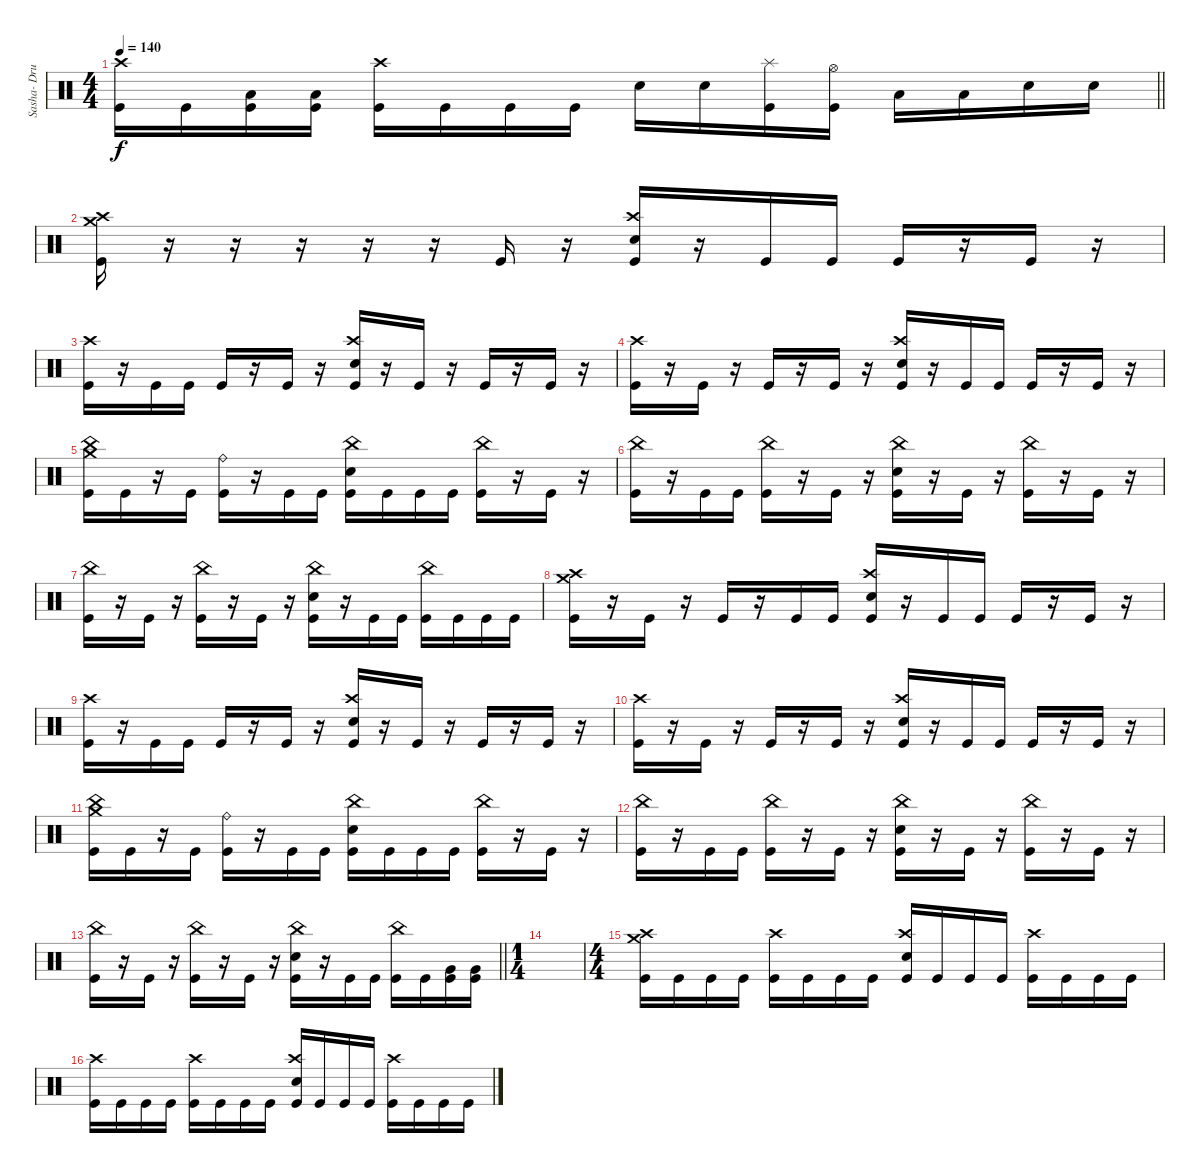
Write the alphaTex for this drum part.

\track ("Sasha- Drums" "Sasha- Dru") {instrument percussion}
\staff {score}
\articulation defaults
\ts (4 4)
\tempo 140
\clef neutral
\barLineRight lightlight
\ks c
("Kick (hit)" "Crash high (hit)").16{dy f} "Kick (hit)".16 ("Kick (hit)" "Low Tom (hit)").16 ("Kick (hit)" "Low Tom (hit)").16 ("Kick (hit)" "Crash high (hit)").16 "Kick (hit)".16 "Kick (hit)".16 "Kick (hit)".16 "Snare (hit) 2".16 "Snare (hit) 2".16 ("Kick (hit)" "Splash (hit)").16 ("Kick (hit)" "Hi-Hat (open)").16 "Low Tom (hit)".16 "Low Tom (hit)".16 "Snare (hit) 2".16 "Snare (hit) 2".16 |
\section ("" "")
("Kick (hit)" "Crash high (hit)" "Crash medium (hit)").16 r.16 r.16 r.16 r.16 r.16 "Kick (hit)".16 r.16 ("Crash high (hit)" "Snare (hit) 2" "Kick (hit)").16 r.16 "Kick (hit)".16 "Kick (hit)".16 "Kick (hit)".16 r.16 "Kick (hit)".16 r.16 |
("Crash high (hit)" "Kick (hit)").16 r.16 "Kick (hit)".16 "Kick (hit)".16 "Kick (hit)".16 r.16 "Kick (hit)".16 r.16 ("Crash high (hit)" "Snare (hit) 2" "Kick (hit)").16 r.16 "Kick (hit)".16 r.16 "Kick (hit)".16 r.16 "Kick (hit)".16 r.16 |
("Crash high (hit)" "Kick (hit)").16 r.16 "Kick (hit)".16 r.16 "Kick (hit)".16 r.16 "Kick (hit)".16 r.16 ("Crash high (hit)" "Snare (hit) 2" "Kick (hit)").16 r.16 "Kick (hit)".16 "Kick (hit)".16 "Kick (hit)".16 r.16 "Kick (hit)".16 r.16 |
("Crash medium (hit)" "China (hit)" "Kick (hit)").16 "Kick (hit)".16 r.16 "Kick (hit)".16 ("Ride (bell)" "Kick (hit)").16 r.16 "Kick (hit)".16 "Kick (hit)".16 ("China (hit)" "Kick (hit)" "Snare (hit) 2").16 "Kick (hit)".16 "Kick (hit)".16 "Kick (hit)".16 ("China (hit)" "Kick (hit)").16 r.16 "Kick (hit)".16 r.16 |
("China (hit)" "Kick (hit)").16 r.16 "Kick (hit)".16 "Kick (hit)".16 ("China (hit)" "Kick (hit)").16 r.16 "Kick (hit)".16 r.16 ("China (hit)" "Kick (hit)" "Snare (hit) 2").16 r.16 "Kick (hit)".16 r.16 ("China (hit)" "Kick (hit)").16 r.16 "Kick (hit)".16 r.16 |
("China (hit)" "Kick (hit)").16 r.16 "Kick (hit)".16 r.16 ("China (hit)" "Kick (hit)").16 r.16 "Kick (hit)".16 r.16 ("China (hit)" "Kick (hit)" "Snare (hit) 2").16 r.16 "Kick (hit)".16 "Kick (hit)".16 ("China (hit)" "Kick (hit)").16 "Kick (hit)".16 "Kick (hit)".16 "Kick (hit)".16 |
("Kick (hit)" "Crash high (hit)" "Crash medium (hit)").16 r.16 "Kick (hit)".16 r.16 "Kick (hit)".16 r.16 "Kick (hit)".16 "Kick (hit)".16 ("Crash high (hit)" "Snare (hit) 2" "Kick (hit)").16 r.16 "Kick (hit)".16 "Kick (hit)".16 "Kick (hit)".16 r.16 "Kick (hit)".16 r.16 |
("Crash high (hit)" "Kick (hit)").16 r.16 "Kick (hit)".16 "Kick (hit)".16 "Kick (hit)".16 r.16 "Kick (hit)".16 r.16 ("Crash high (hit)" "Snare (hit) 2" "Kick (hit)").16 r.16 "Kick (hit)".16 r.16 "Kick (hit)".16 r.16 "Kick (hit)".16 r.16 |
("Crash high (hit)" "Kick (hit)").16 r.16 "Kick (hit)".16 r.16 "Kick (hit)".16 r.16 "Kick (hit)".16 r.16 ("Crash high (hit)" "Snare (hit) 2" "Kick (hit)").16 r.16 "Kick (hit)".16 "Kick (hit)".16 "Kick (hit)".16 r.16 "Kick (hit)".16 r.16 |
("Crash medium (hit)" "China (hit)" "Kick (hit)").16 "Kick (hit)".16 r.16 "Kick (hit)".16 ("Ride (bell)" "Kick (hit)").16 r.16 "Kick (hit)".16 "Kick (hit)".16 ("China (hit)" "Kick (hit)" "Snare (hit) 2").16 "Kick (hit)".16 "Kick (hit)".16 "Kick (hit)".16 ("China (hit)" "Kick (hit)").16 r.16 "Kick (hit)".16 r.16 |
("China (hit)" "Kick (hit)").16 r.16 "Kick (hit)".16 "Kick (hit)".16 ("China (hit)" "Kick (hit)").16 r.16 "Kick (hit)".16 r.16 ("China (hit)" "Kick (hit)" "Snare (hit) 2").16 r.16 "Kick (hit)".16 r.16 ("China (hit)" "Kick (hit)").16 r.16 "Kick (hit)".16 r.16 |
\barLineRight lightlight
("China (hit)" "Kick (hit)").16 r.16 "Kick (hit)".16 r.16 ("China (hit)" "Kick (hit)").16 r.16 "Kick (hit)".16 r.16 ("China (hit)" "Kick (hit)" "Snare (hit) 2").16 r.16 "Kick (hit)".16 "Kick (hit)".16 ("China (hit)" "Kick (hit)").16 "Kick (hit)".16 ("Kick (hit)" "Very Low Tom (hit)").16 ("Kick (hit)" "Very Low Tom (hit)").16 |
\ts (1 4)
\section ("" "")
|
\ts (4 4)
("Kick (hit)" "Crash high (hit)" "Crash medium (hit)").16 "Kick (hit)".16 "Kick (hit)".16 "Kick (hit)".16 ("Kick (hit)" "Crash high (hit)").16 "Kick (hit)".16 "Kick (hit)".16 "Kick (hit)".16 ("Kick (hit)" "Crash high (hit)" "Snare (hit) 2").16 "Kick (hit)".16 "Kick (hit)".16 "Kick (hit)".16 ("Kick (hit)" "Crash high (hit)").16 "Kick (hit)".16 "Kick (hit)".16 "Kick (hit)".16 |
("Kick (hit)" "Crash high (hit)").16 "Kick (hit)".16 "Kick (hit)".16 "Kick (hit)".16 ("Kick (hit)" "Crash high (hit)").16 "Kick (hit)".16 "Kick (hit)".16 "Kick (hit)".16 ("Kick (hit)" "Crash high (hit)" "Snare (hit) 2").16 "Kick (hit)".16 "Kick (hit)".16 "Kick (hit)".16 ("Kick (hit)" "Crash high (hit)").16 "Kick (hit)".16 "Kick (hit)".16 "Kick (hit)".16
